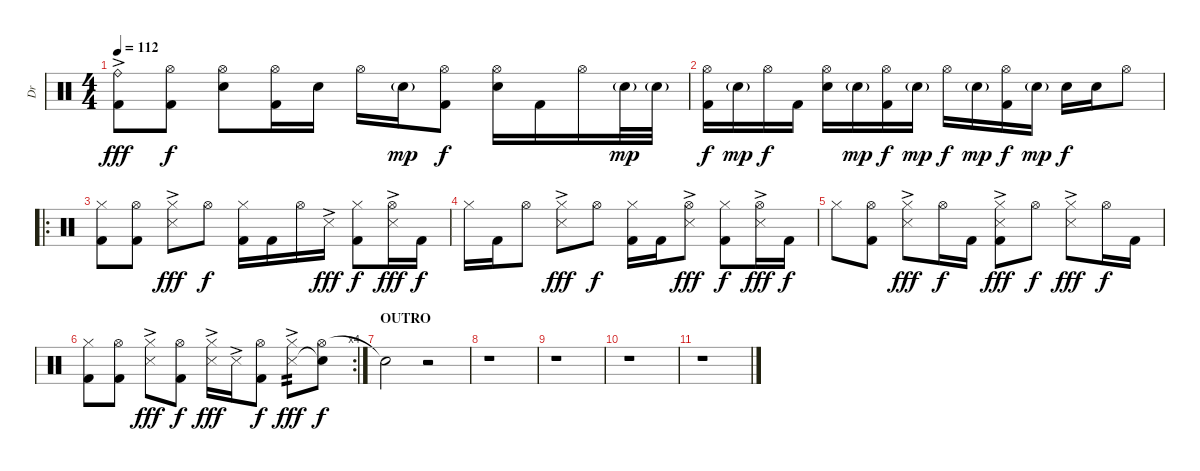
\track ("Dr" "Dr") {instrument percussion}
\staff {score}
\articulation defaults
\ts (4 4)
\tempo 112
\clef neutral
\ks c
("Ride (bell)"{ac} "Kick (hit) 2"{ac}).8{dy fff} ("Hi-Hat (open)" "Kick (hit) 2").8{dy f} ("Hi-Hat (open)" "Electric Snare (hit)").8 ("Hi-Hat (open)" "Kick (hit) 2").16 "Electric Snare (hit)".16 "Hi-Hat (open)".16 "Electric Snare (hit)"{g}.16{dy mp} ("Hi-Hat (open)" "Kick (hit) 2").8{dy f} ("Hi-Hat (open)" "Electric Snare (hit)").16 "Kick (hit) 2".16 "Hi-Hat (open)".16 "Electric Snare (hit)"{g}.32{dy mp} "Electric Snare (hit)"{g}.32 |
("Hi-Hat (open)" "Kick (hit) 2").16{dy f} "Electric Snare (hit)"{g}.16{dy mp} "Hi-Hat (open)".16{dy f} "Kick (hit) 2".16 ("Hi-Hat (open)" "Electric Snare (hit)").16 "Electric Snare (hit)"{g}.16{dy mp} ("Hi-Hat (open)" "Kick (hit) 2").16{dy f} "Electric Snare (hit)"{g}.16{dy mp} "Hi-Hat (open)".16{dy f} "Electric Snare (hit)"{g}.16{dy mp} ("Hi-Hat (open)" "Kick (hit) 2").16{dy f} "Electric Snare (hit)"{g}.16{dy mp} "Electric Snare (hit)".16{dy f} "Electric Snare (hit)".16 "Hi-Hat (open)".8 |
\ro
("Hi-Hat (closed)" "Kick (hit) 2").8 ("Hi-Hat (open)" "Kick (hit) 2").8 ("Hi-Hat (closed)" "Snare (side stick) 3"{ac}).8{dy fff} "Hi-Hat (open)".8{dy f} ("Hi-Hat (closed)" "Kick (hit) 2").16 "Kick (hit) 2".16 "Hi-Hat (open)".16 "Snare (side stick) 3"{ac}.16{dy fff} ("Hi-Hat (closed)" "Kick (hit) 2").8{dy f} ("Hi-Hat (open)" "Snare (side stick) 3"{ac}).16{dy fff} "Kick (hit) 2".16{dy f} |
"Hi-Hat (closed)".16 "Kick (hit) 2".16 "Hi-Hat (open)".8 ("Hi-Hat (closed)" "Snare (side stick) 3"{ac}).8{dy fff} "Hi-Hat (open)".8{dy f} ("Hi-Hat (closed)" "Kick (hit) 2").16 "Kick (hit) 2".16 ("Hi-Hat (open)" "Snare (side stick) 3"{ac}).8{dy fff} ("Hi-Hat (closed)" "Kick (hit) 2").8{dy f} ("Hi-Hat (open)" "Snare (side stick) 3"{ac}).16{dy fff} "Kick (hit) 2".16{dy f} |
"Hi-Hat (closed)".8 ("Hi-Hat (open)" "Kick (hit) 2").8 ("Hi-Hat (closed)" "Snare (side stick) 3"{ac}).8{dy fff} "Hi-Hat (open)".16{dy f} "Kick (hit) 2".16 ("Hi-Hat (closed)" "Snare (side stick) 3"{ac} "Kick (hit) 2").8{dy fff} "Hi-Hat (open)".8{dy f} ("Hi-Hat (closed)" "Snare (side stick) 3"{ac}).8{dy fff} "Hi-Hat (open)".16{dy f} "Kick (hit) 2".16 |
\rc 4
("Hi-Hat (closed)" "Kick (hit) 2").8 ("Hi-Hat (open)" "Kick (hit) 2").8 ("Hi-Hat (closed)" "Snare (side stick) 3"{ac}).8{dy fff} ("Hi-Hat (open)" "Kick (hit) 2").8{dy f} ("Hi-Hat (closed)" "Snare (side stick) 3"{ac}).16{dy fff} "Snare (side stick) 3"{ac}.16 ("Hi-Hat (open)" "Kick (hit) 2").8{dy f} ("Hi-Hat (closed)" "Snare (side stick) 3"{ac}).8{tp 2 dy fff} ("Hi-Hat (open)" "Snare (hit)"{t}).8{dy f} |
\section ("" "OUTRO")
"Snare (hit)"{t}.2 r.2 |
r.1 |
r.1 |
r.1 |
r.1
